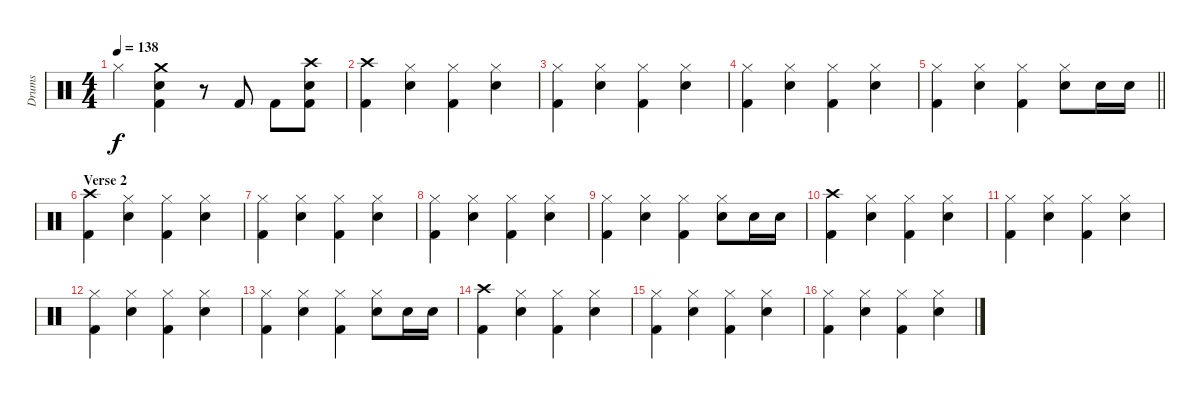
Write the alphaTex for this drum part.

\track ("Drums" "Drums") {instrument percussion}
\staff {score}
\articulation defaults
\ts (4 4)
\tempo 138
\clef neutral
\ks c "Hi-Hat (closed)".4{dy f}
("Crash medium (hit)" "Snare (hit) 2" "Kick (hit) 2").4 r.8 "Kick (hit) 2".8 "Kick (hit) 2".8 ("Crash high (hit)" "Snare (hit) 2" "Kick (hit) 2").8 |
("Crash high (hit)" "Kick (hit) 2").4 ("Snare (hit) 2" "Hi-Hat (closed)").4 ("Hi-Hat (closed)" "Kick (hit) 2").4 ("Snare (hit) 2" "Hi-Hat (closed)").4 |
("Hi-Hat (closed)" "Kick (hit) 2").4 ("Snare (hit) 2" "Hi-Hat (closed)").4 ("Hi-Hat (closed)" "Kick (hit) 2").4 ("Snare (hit) 2" "Hi-Hat (closed)").4 |
("Hi-Hat (closed)" "Kick (hit) 2").4 ("Snare (hit) 2" "Hi-Hat (closed)").4 ("Hi-Hat (closed)" "Kick (hit) 2").4 ("Snare (hit) 2" "Hi-Hat (closed)").4 |
\barLineRight lightlight
("Hi-Hat (closed)" "Kick (hit) 2").4 ("Snare (hit) 2" "Hi-Hat (closed)").4 ("Hi-Hat (closed)" "Kick (hit) 2").4 ("Snare (hit) 2" "Hi-Hat (closed)").8 "Snare (hit) 2".16 "Snare (hit) 2".16 |
\section ("" "Verse 2")
("Crash high (hit)" "Kick (hit) 2").4 ("Snare (hit) 2" "Hi-Hat (closed)").4 ("Hi-Hat (closed)" "Kick (hit) 2").4 ("Snare (hit) 2" "Hi-Hat (closed)").4 |
("Hi-Hat (closed)" "Kick (hit) 2").4 ("Snare (hit) 2" "Hi-Hat (closed)").4 ("Hi-Hat (closed)" "Kick (hit) 2").4 ("Snare (hit) 2" "Hi-Hat (closed)").4 |
("Hi-Hat (closed)" "Kick (hit) 2").4 ("Snare (hit) 2" "Hi-Hat (closed)").4 ("Hi-Hat (closed)" "Kick (hit) 2").4 ("Snare (hit) 2" "Hi-Hat (closed)").4 |
("Hi-Hat (closed)" "Kick (hit) 2").4 ("Snare (hit) 2" "Hi-Hat (closed)").4 ("Hi-Hat (closed)" "Kick (hit) 2").4 ("Snare (hit) 2" "Hi-Hat (closed)").8 "Snare (hit) 2".16 "Snare (hit) 2".16 |
("Crash high (hit)" "Kick (hit) 2").4 ("Snare (hit) 2" "Hi-Hat (closed)").4 ("Hi-Hat (closed)" "Kick (hit) 2").4 ("Snare (hit) 2" "Hi-Hat (closed)").4 |
("Hi-Hat (closed)" "Kick (hit) 2").4 ("Snare (hit) 2" "Hi-Hat (closed)").4 ("Hi-Hat (closed)" "Kick (hit) 2").4 ("Snare (hit) 2" "Hi-Hat (closed)").4 |
("Hi-Hat (closed)" "Kick (hit) 2").4 ("Snare (hit) 2" "Hi-Hat (closed)").4 ("Hi-Hat (closed)" "Kick (hit) 2").4 ("Snare (hit) 2" "Hi-Hat (closed)").4 |
("Hi-Hat (closed)" "Kick (hit) 2").4 ("Snare (hit) 2" "Hi-Hat (closed)").4 ("Hi-Hat (closed)" "Kick (hit) 2").4 ("Snare (hit) 2" "Hi-Hat (closed)").8 "Snare (hit) 2".16 "Snare (hit) 2".16 |
("Crash high (hit)" "Kick (hit) 2").4 ("Snare (hit) 2" "Hi-Hat (closed)").4 ("Hi-Hat (closed)" "Kick (hit) 2").4 ("Snare (hit) 2" "Hi-Hat (closed)").4 |
("Hi-Hat (closed)" "Kick (hit) 2").4 ("Snare (hit) 2" "Hi-Hat (closed)").4 ("Hi-Hat (closed)" "Kick (hit) 2").4 ("Snare (hit) 2" "Hi-Hat (closed)").4 |
("Hi-Hat (closed)" "Kick (hit) 2").4 ("Snare (hit) 2" "Hi-Hat (closed)").4 ("Hi-Hat (closed)" "Kick (hit) 2").4 ("Snare (hit) 2" "Hi-Hat (closed)").4
